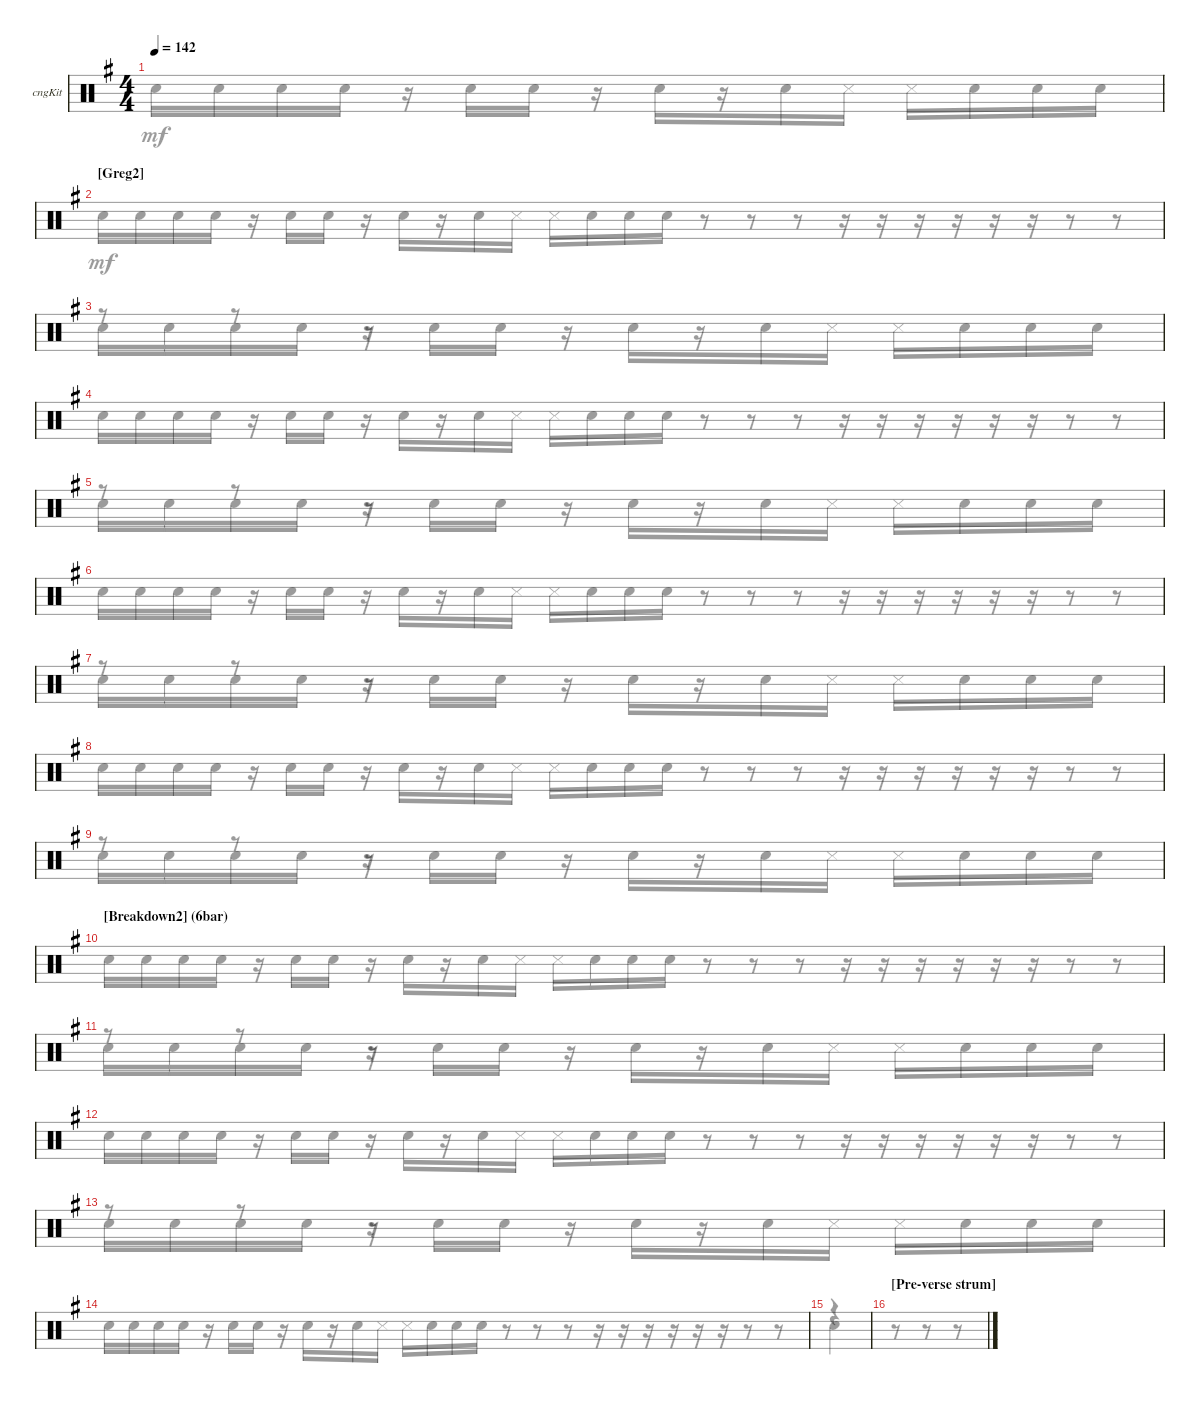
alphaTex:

\bracketExtendMode groupsimilarinstruments
\firstSystemTrackNameOrientation horizontal
\otherSystemsTrackNameOrientation horizontal
\track ("Congas" "cngKit") {instrument percussion}
\staff {score}
\articulation defaults
\voice
\ts (4 4)
\tempo 142
\clef neutral
\ks eminor
|
\section ("" "[Greg2]")
|
|
|
|
|
|
|
|
\section ("" "[Breakdown2] (6bar)  ")
|
|
|
|
|
|
\section ("" "[Pre-verse strum] ")
\voice
\clef neutral
\ks eminor
r.8{dy mf} r.8 r.8 |
"Snare (hit) 2".16 "Snare (hit) 2".16 "Snare (hit) 2".16 "Snare (hit) 2".16 r.16 "Snare (hit) 2".16 "Snare (hit) 2".16 r.16 "Snare (hit) 2".16 r.16 "Snare (hit) 2".16 "Snare (side stick) 3".16 "Snare (side stick) 3".16 "Snare (hit) 2".16 "Snare (hit) 2".16 "Snare (hit) 2".16 r.8 r.8 r.8 r.16 r.16 r.16 r.16 r.16 r.16 r.8 r.8 |
r.8 r.8 r.8 |
"Snare (hit) 2".16 "Snare (hit) 2".16 "Snare (hit) 2".16 "Snare (hit) 2".16 r.16 "Snare (hit) 2".16 "Snare (hit) 2".16 r.16 "Snare (hit) 2".16 r.16 "Snare (hit) 2".16 "Snare (side stick) 3".16 "Snare (side stick) 3".16 "Snare (hit) 2".16 "Snare (hit) 2".16 "Snare (hit) 2".16 r.8 r.8 r.8 r.16 r.16 r.16 r.16 r.16 r.16 r.8 r.8 |
r.8 r.8 r.8 |
"Snare (hit) 2".16 "Snare (hit) 2".16 "Snare (hit) 2".16 "Snare (hit) 2".16 r.16 "Snare (hit) 2".16 "Snare (hit) 2".16 r.16 "Snare (hit) 2".16 r.16 "Snare (hit) 2".16 "Snare (side stick) 3".16 "Snare (side stick) 3".16 "Snare (hit) 2".16 "Snare (hit) 2".16 "Snare (hit) 2".16 r.8 r.8 r.8 r.16 r.16 r.16 r.16 r.16 r.16 r.8 r.8 |
r.8 r.8 r.8 |
"Snare (hit) 2".16 "Snare (hit) 2".16 "Snare (hit) 2".16 "Snare (hit) 2".16 r.16 "Snare (hit) 2".16 "Snare (hit) 2".16 r.16 "Snare (hit) 2".16 r.16 "Snare (hit) 2".16 "Snare (side stick) 3".16 "Snare (side stick) 3".16 "Snare (hit) 2".16 "Snare (hit) 2".16 "Snare (hit) 2".16 r.8 r.8 r.8 r.16 r.16 r.16 r.16 r.16 r.16 r.8 r.8 |
r.8 r.8 r.8 |
"Snare (hit) 2".16 "Snare (hit) 2".16 "Snare (hit) 2".16 "Snare (hit) 2".16 r.16 "Snare (hit) 2".16 "Snare (hit) 2".16 r.16 "Snare (hit) 2".16 r.16 "Snare (hit) 2".16 "Snare (side stick) 3".16 "Snare (side stick) 3".16 "Snare (hit) 2".16 "Snare (hit) 2".16 "Snare (hit) 2".16 r.8 r.8 r.8 r.16 r.16 r.16 r.16 r.16 r.16 r.8 r.8 |
r.8 r.8 r.8 |
"Snare (hit) 2".16 "Snare (hit) 2".16 "Snare (hit) 2".16 "Snare (hit) 2".16 r.16 "Snare (hit) 2".16 "Snare (hit) 2".16 r.16 "Snare (hit) 2".16 r.16 "Snare (hit) 2".16 "Snare (side stick) 3".16 "Snare (side stick) 3".16 "Snare (hit) 2".16 "Snare (hit) 2".16 "Snare (hit) 2".16 r.8 r.8 r.8 r.16 r.16 r.16 r.16 r.16 r.16 r.8 r.8 |
r.8 r.8 r.8 |
"Snare (hit) 2".16 "Snare (hit) 2".16 "Snare (hit) 2".16 "Snare (hit) 2".16 r.16 "Snare (hit) 2".16 "Snare (hit) 2".16 r.16 "Snare (hit) 2".16 r.16 "Snare (hit) 2".16 "Snare (side stick) 3".16 "Snare (side stick) 3".16 "Snare (hit) 2".16 "Snare (hit) 2".16 "Snare (hit) 2".16 r.8 r.8 r.8 r.16 r.16 r.16 r.16 r.16 r.16 r.8 r.8 |
r.4 |
\voice
\clef neutral
\ottava regular
\simile none
\ks eminor "Snare (hit) 2".16{dy mf} "Snare (hit) 2".16 "Snare (hit) 2".16 "Snare (hit) 2".16
r.16 "Snare (hit) 2".16 "Snare (hit) 2".16 r.16 "Snare (hit) 2".16 r.16 "Snare (hit) 2".16 "Snare (side stick) 3".16 "Snare (side stick) 3".16 "Snare (hit) 2".16 "Snare (hit) 2".16 "Snare (hit) 2".16 |
|
"Snare (hit) 2".16 "Snare (hit) 2".16 "Snare (hit) 2".16 "Snare (hit) 2".16 r.16 "Snare (hit) 2".16 "Snare (hit) 2".16 r.16 "Snare (hit) 2".16 r.16 "Snare (hit) 2".16 "Snare (side stick) 3".16 "Snare (side stick) 3".16 "Snare (hit) 2".16 "Snare (hit) 2".16 "Snare (hit) 2".16 |
|
"Snare (hit) 2".16 "Snare (hit) 2".16 "Snare (hit) 2".16 "Snare (hit) 2".16 r.16 "Snare (hit) 2".16 "Snare (hit) 2".16 r.16 "Snare (hit) 2".16 r.16 "Snare (hit) 2".16 "Snare (side stick) 3".16 "Snare (side stick) 3".16 "Snare (hit) 2".16 "Snare (hit) 2".16 "Snare (hit) 2".16 |
|
"Snare (hit) 2".16 "Snare (hit) 2".16 "Snare (hit) 2".16 "Snare (hit) 2".16 r.16 "Snare (hit) 2".16 "Snare (hit) 2".16 r.16 "Snare (hit) 2".16 r.16 "Snare (hit) 2".16 "Snare (side stick) 3".16 "Snare (side stick) 3".16 "Snare (hit) 2".16 "Snare (hit) 2".16 "Snare (hit) 2".16 |
|
"Snare (hit) 2".16 "Snare (hit) 2".16 "Snare (hit) 2".16 "Snare (hit) 2".16 r.16 "Snare (hit) 2".16 "Snare (hit) 2".16 r.16 "Snare (hit) 2".16 r.16 "Snare (hit) 2".16 "Snare (side stick) 3".16 "Snare (side stick) 3".16 "Snare (hit) 2".16 "Snare (hit) 2".16 "Snare (hit) 2".16 |
|
"Snare (hit) 2".16 "Snare (hit) 2".16 "Snare (hit) 2".16 "Snare (hit) 2".16 r.16 "Snare (hit) 2".16 "Snare (hit) 2".16 r.16 "Snare (hit) 2".16 r.16 "Snare (hit) 2".16 "Snare (side stick) 3".16 "Snare (side stick) 3".16 "Snare (hit) 2".16 "Snare (hit) 2".16 "Snare (hit) 2".16 |
|
"Snare (hit) 2".16 "Snare (hit) 2".16 "Snare (hit) 2".16 "Snare (hit) 2".16 r.16 "Snare (hit) 2".16 "Snare (hit) 2".16 r.16 "Snare (hit) 2".16 r.16 "Snare (hit) 2".16 "Snare (side stick) 3".16 "Snare (side stick) 3".16 "Snare (hit) 2".16 "Snare (hit) 2".16 "Snare (hit) 2".16 |
|
"Snare (hit) 2".4 |
